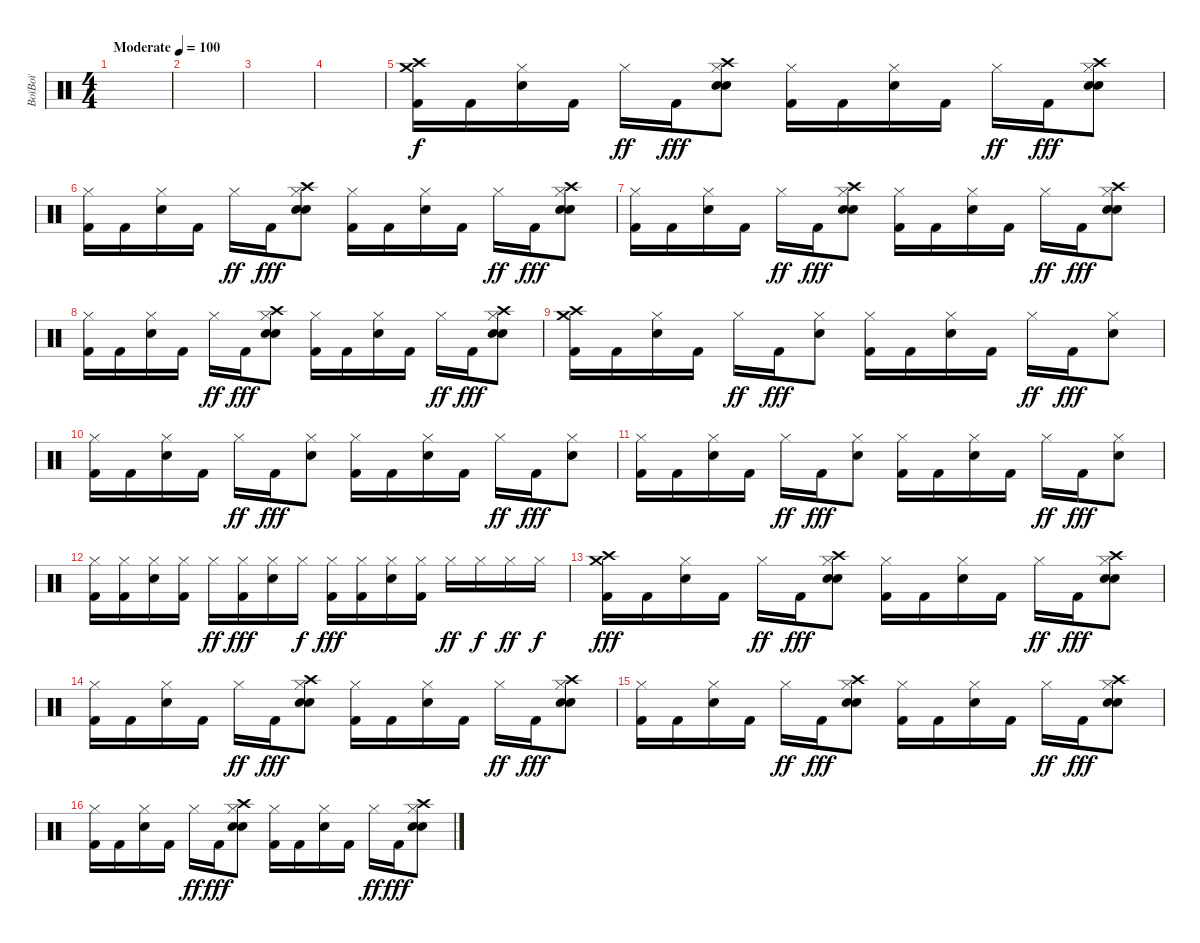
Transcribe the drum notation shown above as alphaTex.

\track ("BoïBoï" "BoïBoï") {instrument percussion}
\staff {score}
\articulation defaults
\ts (4 4)
\tempo (100 "Moderate")
\clef neutral
\ks c
|
|
|
|
("Crash medium (hit)" "Crash high (hit)" "Kick (hit) 2").16 "Kick (hit) 2".16 ("Hi-Hat (closed)" "Electric Snare (hit)").16 "Kick (hit) 2".16 "Hi-Hat (closed)".16{dy ff} "Kick (hit) 2".16{dy fff} ("Hi-Hat (closed)" "Crash high (hit)" "Electric Snare (hit)" "Snare (hit) 2").8 ("Hi-Hat (closed)" "Kick (hit) 2").16 "Kick (hit) 2".16 ("Hi-Hat (closed)" "Electric Snare (hit)").16 "Kick (hit) 2".16 "Hi-Hat (closed)".16{dy ff} "Kick (hit) 2".16{dy fff} ("Hi-Hat (closed)" "Crash high (hit)" "Electric Snare (hit)" "Snare (hit) 2").8 |
("Hi-Hat (closed)" "Kick (hit) 2").16 "Kick (hit) 2".16 ("Hi-Hat (closed)" "Electric Snare (hit)").16 "Kick (hit) 2".16 "Hi-Hat (closed)".16{dy ff} "Kick (hit) 2".16{dy fff} ("Hi-Hat (closed)" "Crash high (hit)" "Electric Snare (hit)" "Snare (hit) 2").8 ("Hi-Hat (closed)" "Kick (hit) 2").16 "Kick (hit) 2".16 ("Hi-Hat (closed)" "Electric Snare (hit)").16 "Kick (hit) 2".16 "Hi-Hat (closed)".16{dy ff} "Kick (hit) 2".16{dy fff} ("Hi-Hat (closed)" "Crash high (hit)" "Electric Snare (hit)" "Snare (hit) 2").8 |
("Hi-Hat (closed)" "Kick (hit) 2").16 "Kick (hit) 2".16 ("Hi-Hat (closed)" "Electric Snare (hit)").16 "Kick (hit) 2".16 "Hi-Hat (closed)".16{dy ff} "Kick (hit) 2".16{dy fff} ("Hi-Hat (closed)" "Crash high (hit)" "Electric Snare (hit)" "Snare (hit) 2").8 ("Hi-Hat (closed)" "Kick (hit) 2").16 "Kick (hit) 2".16 ("Hi-Hat (closed)" "Electric Snare (hit)").16 "Kick (hit) 2".16 "Hi-Hat (closed)".16{dy ff} "Kick (hit) 2".16{dy fff} ("Hi-Hat (closed)" "Crash high (hit)" "Electric Snare (hit)" "Snare (hit) 2").8 |
("Hi-Hat (closed)" "Kick (hit) 2").16 "Kick (hit) 2".16 ("Hi-Hat (closed)" "Electric Snare (hit)").16 "Kick (hit) 2".16 "Hi-Hat (closed)".16{dy ff} "Kick (hit) 2".16{dy fff} ("Hi-Hat (closed)" "Crash high (hit)" "Electric Snare (hit)" "Snare (hit) 2").8 ("Hi-Hat (closed)" "Kick (hit) 2").16 "Kick (hit) 2".16 ("Hi-Hat (closed)" "Electric Snare (hit)").16 "Kick (hit) 2".16 "Hi-Hat (closed)".16{dy ff} "Kick (hit) 2".16{dy fff} ("Hi-Hat (closed)" "Crash high (hit)" "Electric Snare (hit)" "Snare (hit) 2").8 |
("Crash medium (hit)" "Crash high (hit)" "Kick (hit) 2").16 "Kick (hit) 2".16 ("Hi-Hat (closed)" "Electric Snare (hit)").16 "Kick (hit) 2".16 "Hi-Hat (closed)".16{dy ff} "Kick (hit) 2".16{dy fff} ("Hi-Hat (closed)" "Electric Snare (hit)").8 ("Hi-Hat (closed)" "Kick (hit) 2").16 "Kick (hit) 2".16 ("Hi-Hat (closed)" "Electric Snare (hit)").16 "Kick (hit) 2".16 "Hi-Hat (closed)".16{dy ff} "Kick (hit) 2".16{dy fff} ("Hi-Hat (closed)" "Electric Snare (hit)").8 |
("Hi-Hat (closed)" "Kick (hit) 2").16 "Kick (hit) 2".16 ("Hi-Hat (closed)" "Electric Snare (hit)").16 "Kick (hit) 2".16 "Hi-Hat (closed)".16{dy ff} "Kick (hit) 2".16{dy fff} ("Hi-Hat (closed)" "Electric Snare (hit)").8 ("Hi-Hat (closed)" "Kick (hit) 2").16 "Kick (hit) 2".16 ("Hi-Hat (closed)" "Electric Snare (hit)").16 "Kick (hit) 2".16 "Hi-Hat (closed)".16{dy ff} "Kick (hit) 2".16{dy fff} ("Hi-Hat (closed)" "Electric Snare (hit)").8 |
("Hi-Hat (closed)" "Kick (hit) 2").16 "Kick (hit) 2".16 ("Hi-Hat (closed)" "Electric Snare (hit)").16 "Kick (hit) 2".16 "Hi-Hat (closed)".16{dy ff} "Kick (hit) 2".16{dy fff} ("Hi-Hat (closed)" "Electric Snare (hit)").8 ("Hi-Hat (closed)" "Kick (hit) 2").16 "Kick (hit) 2".16 ("Hi-Hat (closed)" "Electric Snare (hit)").16 "Kick (hit) 2".16 "Hi-Hat (closed)".16{dy ff} "Kick (hit) 2".16{dy fff} ("Hi-Hat (closed)" "Electric Snare (hit)").8 |
("Hi-Hat (closed)" "Kick (hit) 2").16 ("Hi-Hat (closed)" "Kick (hit) 2").16 ("Hi-Hat (closed)" "Electric Snare (hit)").16 ("Hi-Hat (closed)" "Kick (hit) 2").16 "Hi-Hat (closed)".16{dy ff} ("Hi-Hat (closed)" "Kick (hit) 2").16{dy fff} ("Hi-Hat (closed)" "Electric Snare (hit)").16 "Hi-Hat (closed)".16{dy f} ("Hi-Hat (closed)" "Kick (hit) 2").16{dy fff} ("Hi-Hat (closed)" "Kick (hit) 2").16 ("Hi-Hat (closed)" "Electric Snare (hit)").16 ("Hi-Hat (closed)" "Kick (hit) 2").16 "Hi-Hat (closed)".16{dy ff} "Hi-Hat (closed)".16{dy f} "Hi-Hat (closed)".16{dy ff} "Hi-Hat (closed)".16{dy f} |
("Crash medium (hit)" "Crash high (hit)" "Kick (hit) 2").16{dy fff} "Kick (hit) 2".16 ("Hi-Hat (closed)" "Electric Snare (hit)").16 "Kick (hit) 2".16 "Hi-Hat (closed)".16{dy ff} "Kick (hit) 2".16{dy fff} ("Hi-Hat (closed)" "Crash high (hit)" "Electric Snare (hit)" "Snare (hit) 2").8 ("Hi-Hat (closed)" "Kick (hit) 2").16 "Kick (hit) 2".16 ("Hi-Hat (closed)" "Electric Snare (hit)").16 "Kick (hit) 2".16 "Hi-Hat (closed)".16{dy ff} "Kick (hit) 2".16{dy fff} ("Hi-Hat (closed)" "Crash high (hit)" "Electric Snare (hit)" "Snare (hit) 2").8 |
("Hi-Hat (closed)" "Kick (hit) 2").16 "Kick (hit) 2".16 ("Hi-Hat (closed)" "Electric Snare (hit)").16 "Kick (hit) 2".16 "Hi-Hat (closed)".16{dy ff} "Kick (hit) 2".16{dy fff} ("Hi-Hat (closed)" "Crash high (hit)" "Electric Snare (hit)" "Snare (hit) 2").8 ("Hi-Hat (closed)" "Kick (hit) 2").16 "Kick (hit) 2".16 ("Hi-Hat (closed)" "Electric Snare (hit)").16 "Kick (hit) 2".16 "Hi-Hat (closed)".16{dy ff} "Kick (hit) 2".16{dy fff} ("Hi-Hat (closed)" "Crash high (hit)" "Electric Snare (hit)" "Snare (hit) 2").8 |
("Hi-Hat (closed)" "Kick (hit) 2").16 "Kick (hit) 2".16 ("Hi-Hat (closed)" "Electric Snare (hit)").16 "Kick (hit) 2".16 "Hi-Hat (closed)".16{dy ff} "Kick (hit) 2".16{dy fff} ("Hi-Hat (closed)" "Crash high (hit)" "Electric Snare (hit)" "Snare (hit) 2").8 ("Hi-Hat (closed)" "Kick (hit) 2").16 "Kick (hit) 2".16 ("Hi-Hat (closed)" "Electric Snare (hit)").16 "Kick (hit) 2".16 "Hi-Hat (closed)".16{dy ff} "Kick (hit) 2".16{dy fff} ("Hi-Hat (closed)" "Crash high (hit)" "Electric Snare (hit)" "Snare (hit) 2").8 |
("Hi-Hat (closed)" "Kick (hit) 2").16 "Kick (hit) 2".16 ("Hi-Hat (closed)" "Electric Snare (hit)").16 "Kick (hit) 2".16 "Hi-Hat (closed)".16{dy ff} "Kick (hit) 2".16{dy fff} ("Hi-Hat (closed)" "Crash high (hit)" "Electric Snare (hit)" "Snare (hit) 2").8 ("Hi-Hat (closed)" "Kick (hit) 2").16 "Kick (hit) 2".16 ("Hi-Hat (closed)" "Electric Snare (hit)").16 "Kick (hit) 2".16 "Hi-Hat (closed)".16{dy ff} "Kick (hit) 2".16{dy fff} ("Hi-Hat (closed)" "Crash high (hit)" "Electric Snare (hit)" "Snare (hit) 2").8
